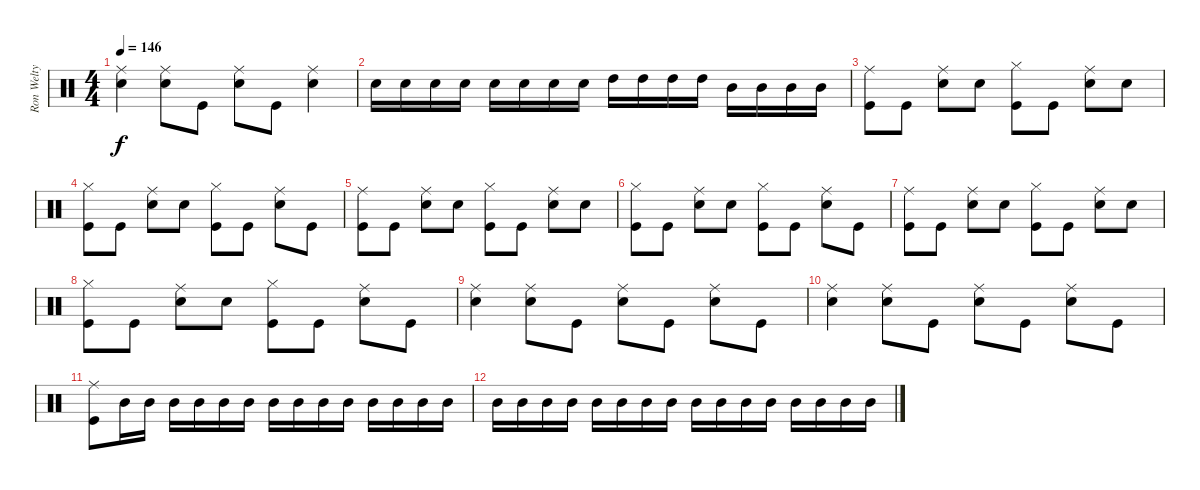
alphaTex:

\track ("Ron Welty" "Ron Welty") {instrument percussion}
\staff {score}
\articulation defaults
\ts (4 4)
\tempo 146
\clef neutral
\ks c
("Ride (middle)" "Snare (hit) 2").4{dy f} ("Ride (middle)" "Snare (hit) 2").8 "Kick (hit)".8 ("Ride (middle)" "Snare (hit) 2").8 "Kick (hit)".8 ("Ride (middle)" "Snare (hit) 2").4 |
"Snare (hit) 2".16 "Snare (hit) 2".16 "Snare (hit) 2".16 "Snare (hit) 2".16 "Snare (hit) 2".16 "Snare (hit) 2".16 "Snare (hit) 2".16 "Snare (hit) 2".16 "High Tom (hit)".16 "High Tom (hit)".16 "High Tom (hit)".16 "High Tom (hit)".16 "Mid Tom (hit)".16 "Mid Tom (hit)".16 "Mid Tom (hit)".16 "Mid Tom (hit)".16 |
("Ride (middle)" "Kick (hit)").8 "Kick (hit)".8 ("Ride (middle)" "Snare (hit) 2").8 "Snare (hit) 2".8 ("Hi-Hat (closed)" "Kick (hit)").8 "Kick (hit)".8 ("Ride (middle)" "Snare (hit) 2").8 "Snare (hit) 2".8 |
("Hi-Hat (closed)" "Kick (hit)").8 "Kick (hit)".8 ("Ride (middle)" "Snare (hit) 2").8 "Snare (hit) 2".8 ("Hi-Hat (closed)" "Kick (hit)").8 "Kick (hit)".8 ("Ride (middle)" "Snare (hit) 2").8 "Kick (hit)".8 |
("Ride (middle)" "Kick (hit)").8 "Kick (hit)".8 ("Ride (middle)" "Snare (hit) 2").8 "Snare (hit) 2".8 ("Hi-Hat (closed)" "Kick (hit)").8 "Kick (hit)".8 ("Ride (middle)" "Snare (hit) 2").8 "Snare (hit) 2".8 |
("Hi-Hat (closed)" "Kick (hit)").8 "Kick (hit)".8 ("Ride (middle)" "Snare (hit) 2").8 "Snare (hit) 2".8 ("Hi-Hat (closed)" "Kick (hit)").8 "Kick (hit)".8 ("Ride (middle)" "Snare (hit) 2").8 "Kick (hit)".8 |
("Ride (middle)" "Kick (hit)").8 "Kick (hit)".8 ("Ride (middle)" "Snare (hit) 2").8 "Snare (hit) 2".8 ("Hi-Hat (closed)" "Kick (hit)").8 "Kick (hit)".8 ("Ride (middle)" "Snare (hit) 2").8 "Snare (hit) 2".8 |
("Hi-Hat (closed)" "Kick (hit)").8 "Kick (hit)".8 ("Ride (middle)" "Snare (hit) 2").8 "Snare (hit) 2".8 ("Hi-Hat (closed)" "Kick (hit)").8 "Kick (hit)".8 ("Ride (middle)" "Snare (hit) 2").8 "Kick (hit)".8 |
("Ride (middle)" "Snare (hit) 2").4 ("Ride (middle)" "Snare (hit) 2").8 "Kick (hit)".8 ("Ride (middle)" "Snare (hit) 2").8 "Kick (hit)".8 ("Ride (middle)" "Snare (hit) 2").8 "Kick (hit)".8 |
("Ride (middle)" "Snare (hit) 2").4 ("Ride (middle)" "Snare (hit) 2").8 "Kick (hit)".8 ("Ride (middle)" "Snare (hit) 2").8 "Kick (hit)".8 ("Ride (middle)" "Snare (hit) 2").8 "Kick (hit)".8 |
("Ride (middle)" "Kick (hit)").8 "Mid Tom (hit)".16 "Mid Tom (hit)".16 "Mid Tom (hit)".16 "Mid Tom (hit)".16 "Mid Tom (hit)".16 "Mid Tom (hit)".16 "Mid Tom (hit)".16 "Mid Tom (hit)".16 "Mid Tom (hit)".16 "Mid Tom (hit)".16 "Mid Tom (hit)".16 "Mid Tom (hit)".16 "Mid Tom (hit)".16 "Mid Tom (hit)".16 |
"Mid Tom (hit)".16 "Mid Tom (hit)".16 "Mid Tom (hit)".16 "Mid Tom (hit)".16 "Mid Tom (hit)".16 "Mid Tom (hit)".16 "Mid Tom (hit)".16 "Mid Tom (hit)".16 "Mid Tom (hit)".16 "Mid Tom (hit)".16 "Mid Tom (hit)".16 "Mid Tom (hit)".16 "Mid Tom (hit)".16 "Mid Tom (hit)".16 "Mid Tom (hit)".16 "Mid Tom (hit)".16
